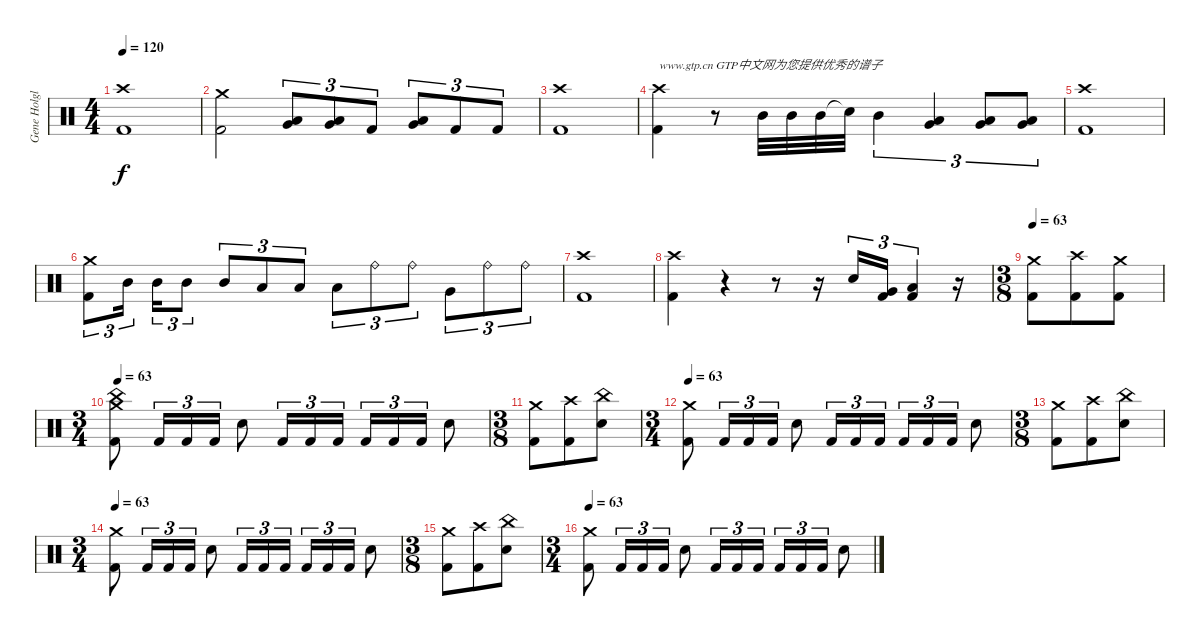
\track ("Gene Holglan" "Gene Holgl") {instrument percussion}
\staff {score}
\articulation defaults
\ts (4 4)
\tempo 120
\clef neutral
\ks c
("Crash high (hit)" "Kick (hit) 2").1{dy f} |
("Crash medium (hit)" "Kick (hit) 2").2 ("Low Tom (hit)" "Very Low Tom (hit)").8{tu (3 2)} ("Low Tom (hit)" "Very Low Tom (hit)").8{tu (3 2)} "Kick (hit) 2".8{tu (3 2)} ("Very Low Tom (hit)" "Low Floor Tom (hit)").8{tu (3 2)} "Kick (hit) 2".8{tu (3 2)} "Kick (hit) 2".8{tu (3 2)} |
("Crash high (hit)" "Kick (hit) 2").1 |
("Crash high (hit)" "Kick (hit) 2").4{txt "www.gtp.cn GTP中文网为您提供优秀的谱子"} r.8 "Mid Tom (hit)".32 "Mid Tom (hit)".32 "Mid Tom (hit)".32 "Snare (hit)"{t}.32 "Mid Tom (hit)".4{tu (3 2)} ("Low Tom (hit)" "Very Low Tom (hit)").4{tu (3 2)} ("Very Low Tom (hit)" "Low Floor Tom (hit)").8{tu (3 2)} ("Very Low Tom (hit)" "Low Floor Tom (hit)").8{tu (3 2)} |
("Crash high (hit)" "Kick (hit) 2").1 |
("Crash medium (hit)" "Kick (hit) 2").8{tu (3 2)} "Mid Tom (hit)".16{tu (3 2)} "Mid Tom (hit)".16{tu (3 2)} "Mid Tom (hit)".8{tu (3 2)} "Mid Tom (hit)".8{tu (3 2)} "Low Tom (hit)".8{tu (3 2)} "Low Tom (hit)".8{tu (3 2)} "Low Tom (hit)".8{tu (3 2)} "Ride (bell)".8{tu (3 2)} "Ride (bell)".8{tu (3 2)} "Very Low Tom (hit)".8{tu (3 2)} "Ride (bell)".8{tu (3 2)} "Ride (bell)".8{tu (3 2)} |
("Crash high (hit)" "Kick (hit) 2").1 |
("Crash high (hit)" "Kick (hit) 2").4 r.4 r.8 r.16 "Snare (hit) 2".16{tu (3 2)} ("Very Low Tom (hit)" "Kick (hit) 2").16{tu (3 2)} ("Low Floor Tom (hit)" "Kick (hit) 2").4{tu (3 2)} r.16 |
\ts (3 8)
\tempo 63
("Crash medium (hit)" "Kick (hit) 2").8 ("Crash high (hit)" "Kick (hit) 2").8 ("Crash medium (hit)" "Kick (hit) 2").8 |
\ts (3 4)
\tempo 63
("Crash medium (hit)" "China (hit)" "Kick (hit) 2").8 "Kick (hit) 2".16{tu (3 2)} "Kick (hit) 2".16{tu (3 2)} "Kick (hit) 2".16{tu (3 2)} "Snare (hit) 2".8 "Kick (hit) 2".16{tu (3 2)} "Kick (hit) 2".16{tu (3 2)} "Kick (hit) 2".16{tu (3 2)} "Kick (hit) 2".16{tu (3 2)} "Kick (hit) 2".16{tu (3 2)} "Kick (hit) 2".16{tu (3 2)} "Snare (hit) 2".8 |
\ts (3 8)
("Crash medium (hit)" "Kick (hit) 2").8 ("Crash high (hit)" "Kick (hit) 2").8 ("China (hit)" "Snare (hit) 2").8 |
\ts (3 4)
\tempo 63
("Crash medium (hit)" "Kick (hit) 2").8 "Kick (hit) 2".16{tu (3 2)} "Kick (hit) 2".16{tu (3 2)} "Kick (hit) 2".16{tu (3 2)} "Snare (hit) 2".8 "Kick (hit) 2".16{tu (3 2)} "Kick (hit) 2".16{tu (3 2)} "Kick (hit) 2".16{tu (3 2)} "Kick (hit) 2".16{tu (3 2)} "Kick (hit) 2".16{tu (3 2)} "Kick (hit) 2".16{tu (3 2)} "Snare (hit) 2".8 |
\ts (3 8)
("Crash medium (hit)" "Kick (hit) 2").8 ("Crash high (hit)" "Kick (hit) 2").8 ("China (hit)" "Snare (hit) 2").8 |
\ts (3 4)
\tempo 63
("Crash medium (hit)" "Kick (hit) 2").8 "Kick (hit) 2".16{tu (3 2)} "Kick (hit) 2".16{tu (3 2)} "Kick (hit) 2".16{tu (3 2)} "Snare (hit) 2".8 "Kick (hit) 2".16{tu (3 2)} "Kick (hit) 2".16{tu (3 2)} "Kick (hit) 2".16{tu (3 2)} "Kick (hit) 2".16{tu (3 2)} "Kick (hit) 2".16{tu (3 2)} "Kick (hit) 2".16{tu (3 2)} "Snare (hit) 2".8 |
\ts (3 8)
("Crash medium (hit)" "Kick (hit) 2").8 ("Crash high (hit)" "Kick (hit) 2").8 ("China (hit)" "Snare (hit) 2").8 |
\ts (3 4)
\tempo 63
("Crash medium (hit)" "Kick (hit) 2").8 "Kick (hit) 2".16{tu (3 2)} "Kick (hit) 2".16{tu (3 2)} "Kick (hit) 2".16{tu (3 2)} "Snare (hit) 2".8 "Kick (hit) 2".16{tu (3 2)} "Kick (hit) 2".16{tu (3 2)} "Kick (hit) 2".16{tu (3 2)} "Kick (hit) 2".16{tu (3 2)} "Kick (hit) 2".16{tu (3 2)} "Kick (hit) 2".16{tu (3 2)} "Snare (hit) 2".8
